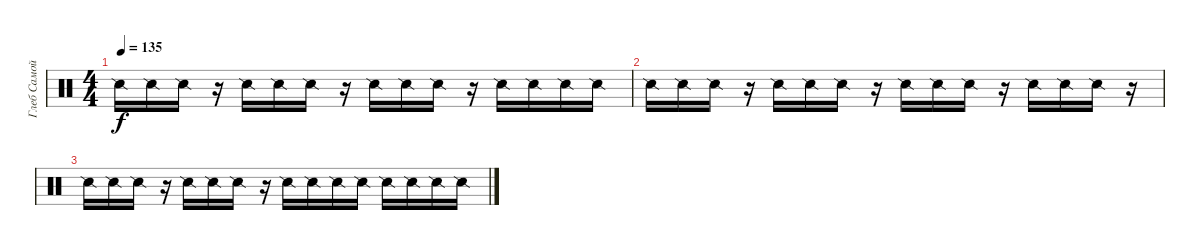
\track ("Глеб Самойлов (fx)" "Глеб Самой") {instrument percussion}
\staff {score}
\articulation defaults
\ts (4 4)
\tempo 135
\clef neutral
\ks c "Snare (side stick) 2".16{dy f} "Snare (side stick) 2".16 "Snare (side stick) 2".16
r.16 "Snare (side stick) 2".16 "Snare (side stick) 2".16 "Snare (side stick) 2".16 r.16 "Snare (side stick) 2".16 "Snare (side stick) 2".16 "Snare (side stick) 2".16 r.16 "Snare (side stick) 2".16 "Snare (side stick) 2".16 "Snare (side stick) 2".16 "Snare (side stick) 2".16 |
"Snare (side stick) 2".16 "Snare (side stick) 2".16 "Snare (side stick) 2".16 r.16 "Snare (side stick) 2".16 "Snare (side stick) 2".16 "Snare (side stick) 2".16 r.16 "Snare (side stick) 2".16 "Snare (side stick) 2".16 "Snare (side stick) 2".16 r.16 "Snare (side stick) 2".16 "Snare (side stick) 2".16 "Snare (side stick) 2".16 r.16 |
"Snare (side stick) 2".16 "Snare (side stick) 2".16 "Snare (side stick) 2".16 r.16 "Snare (side stick) 2".16 "Snare (side stick) 2".16 "Snare (side stick) 2".16 r.16 "Snare (side stick) 2".16 "Snare (side stick) 2".16 "Snare (side stick) 2".16 "Snare (side stick) 2".16 "Snare (side stick) 2".16 "Snare (side stick) 2".16 "Snare (side stick) 2".16 "Snare (side stick) 2".16
